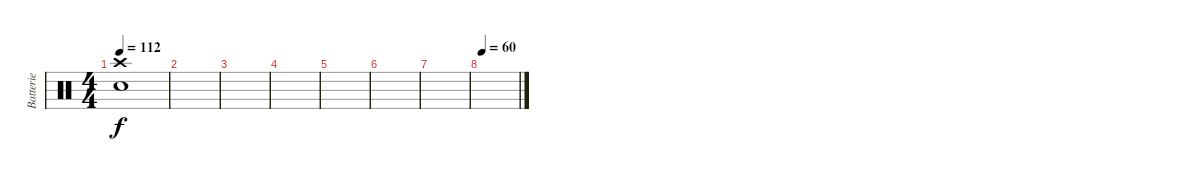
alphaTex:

\track ("Batterie" "Batterie") {instrument percussion}
\staff {score}
\articulation defaults
\ts (4 4)
\tempo 112
\clef neutral
\ks c
("Crash high (hit)" "Snare (hit) 2").1{dy f} |
|
|
|
|
|
|
\tempo 60
